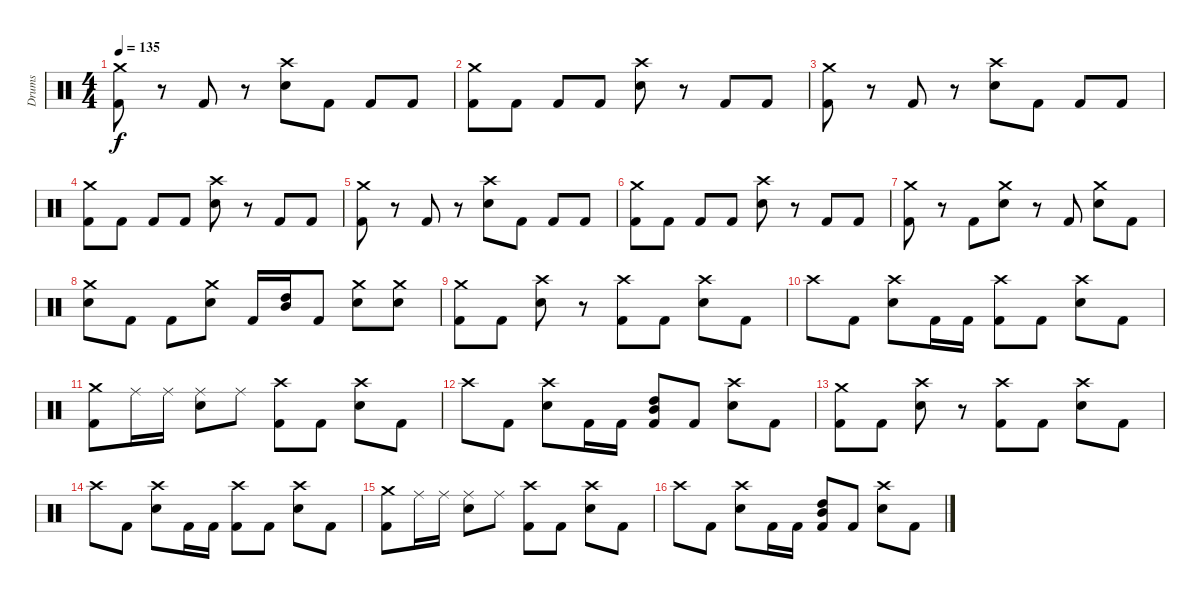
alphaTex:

\track ("Drums" "Drums") {instrument percussion}
\staff {score}
\articulation defaults
\ts (4 4)
\tempo 135
\clef neutral
\ks c
("Crash medium (hit)" "Kick (hit) 2").8{dy f} r.8 "Kick (hit) 2".8 r.8 ("Crash high (hit)" "Electric Snare (hit)").8 "Kick (hit) 2".8 "Kick (hit) 2".8 "Kick (hit) 2".8 |
("Crash medium (hit)" "Kick (hit) 2").8 "Kick (hit) 2".8 "Kick (hit) 2".8 "Kick (hit) 2".8 ("Crash high (hit)" "Electric Snare (hit)").8 r.8 "Kick (hit) 2".8 "Kick (hit) 2".8 |
("Crash medium (hit)" "Kick (hit) 2").8 r.8 "Kick (hit) 2".8 r.8 ("Crash high (hit)" "Electric Snare (hit)").8 "Kick (hit) 2".8 "Kick (hit) 2".8 "Kick (hit) 2".8 |
("Crash medium (hit)" "Kick (hit) 2").8 "Kick (hit) 2".8 "Kick (hit) 2".8 "Kick (hit) 2".8 ("Crash high (hit)" "Electric Snare (hit)").8 r.8 "Kick (hit) 2".8 "Kick (hit) 2".8 |
("Crash medium (hit)" "Kick (hit) 2").8 r.8 "Kick (hit) 2".8 r.8 ("Crash high (hit)" "Electric Snare (hit)").8 "Kick (hit) 2".8 "Kick (hit) 2".8 "Kick (hit) 2".8 |
("Crash medium (hit)" "Kick (hit) 2").8 "Kick (hit) 2".8 "Kick (hit) 2".8 "Kick (hit) 2".8 ("Crash high (hit)" "Electric Snare (hit)").8 r.8 "Kick (hit) 2".8 "Kick (hit) 2".8 |
("Crash medium (hit)" "Kick (hit) 2").8 r.8 "Kick (hit) 2".8 ("Crash medium (hit)" "Electric Snare (hit)").8 r.8 "Kick (hit) 2".8 ("Crash medium (hit)" "Electric Snare (hit)").8 "Kick (hit) 2".8 |
("Crash medium (hit)" "Electric Snare (hit)").8 "Kick (hit) 2".8 "Kick (hit) 2".8 ("Crash medium (hit)" "Electric Snare (hit)").8 "Kick (hit) 2".16 ("Mid Tom (hit)" "High Tom (hit)").16 "Kick (hit) 2".8 ("Crash medium (hit)" "Electric Snare (hit)").8 ("Crash medium (hit)" "Electric Snare (hit)").8 |
("Crash medium (hit)" "Kick (hit) 2").8 "Kick (hit) 2".8 ("Crash high (hit)" "Electric Snare (hit)").8 r.8 ("Crash high (hit)" "Kick (hit) 2").8 "Kick (hit) 2".8 ("Crash high (hit)" "Electric Snare (hit)").8 "Kick (hit) 2".8 |
"Crash high (hit)".8 "Kick (hit) 2".8 ("Crash high (hit)" "Electric Snare (hit)").8 "Kick (hit) 2".16 "Kick (hit) 2".16 ("Crash high (hit)" "Kick (hit) 2").8 "Kick (hit) 2".8 ("Crash high (hit)" "Electric Snare (hit)").8 "Kick (hit) 2".8 |
("Crash medium (hit)" "Kick (hit) 2").8 "Ride (middle)".16 "Ride (middle)".16 ("Ride (middle)" "Electric Snare (hit)").8 "Ride (middle)".8 ("Crash high (hit)" "Kick (hit) 2").8 "Kick (hit) 2".8 ("Crash high (hit)" "Electric Snare (hit)").8 "Kick (hit) 2".8 |
"Crash high (hit)".8 "Kick (hit) 2".8 ("Crash high (hit)" "Electric Snare (hit)").8 "Kick (hit) 2".16 "Kick (hit) 2".16 ("Mid Tom (hit)" "High Tom (hit)" "Kick (hit) 2").8 "Kick (hit) 2".8 ("Crash high (hit)" "Electric Snare (hit)").8 "Kick (hit) 2".8 |
("Crash medium (hit)" "Kick (hit) 2").8 "Kick (hit) 2".8 ("Crash high (hit)" "Electric Snare (hit)").8 r.8 ("Crash high (hit)" "Kick (hit) 2").8 "Kick (hit) 2".8 ("Crash high (hit)" "Electric Snare (hit)").8 "Kick (hit) 2".8 |
"Crash high (hit)".8 "Kick (hit) 2".8 ("Crash high (hit)" "Electric Snare (hit)").8 "Kick (hit) 2".16 "Kick (hit) 2".16 ("Crash high (hit)" "Kick (hit) 2").8 "Kick (hit) 2".8 ("Crash high (hit)" "Electric Snare (hit)").8 "Kick (hit) 2".8 |
("Crash medium (hit)" "Kick (hit) 2").8 "Ride (middle)".16 "Ride (middle)".16 ("Ride (middle)" "Electric Snare (hit)").8 "Ride (middle)".8 ("Crash high (hit)" "Kick (hit) 2").8 "Kick (hit) 2".8 ("Crash high (hit)" "Electric Snare (hit)").8 "Kick (hit) 2".8 |
"Crash high (hit)".8 "Kick (hit) 2".8 ("Crash high (hit)" "Electric Snare (hit)").8 "Kick (hit) 2".16 "Kick (hit) 2".16 ("Mid Tom (hit)" "High Tom (hit)" "Kick (hit) 2").8 "Kick (hit) 2".8 ("Crash high (hit)" "Electric Snare (hit)").8 "Kick (hit) 2".8
